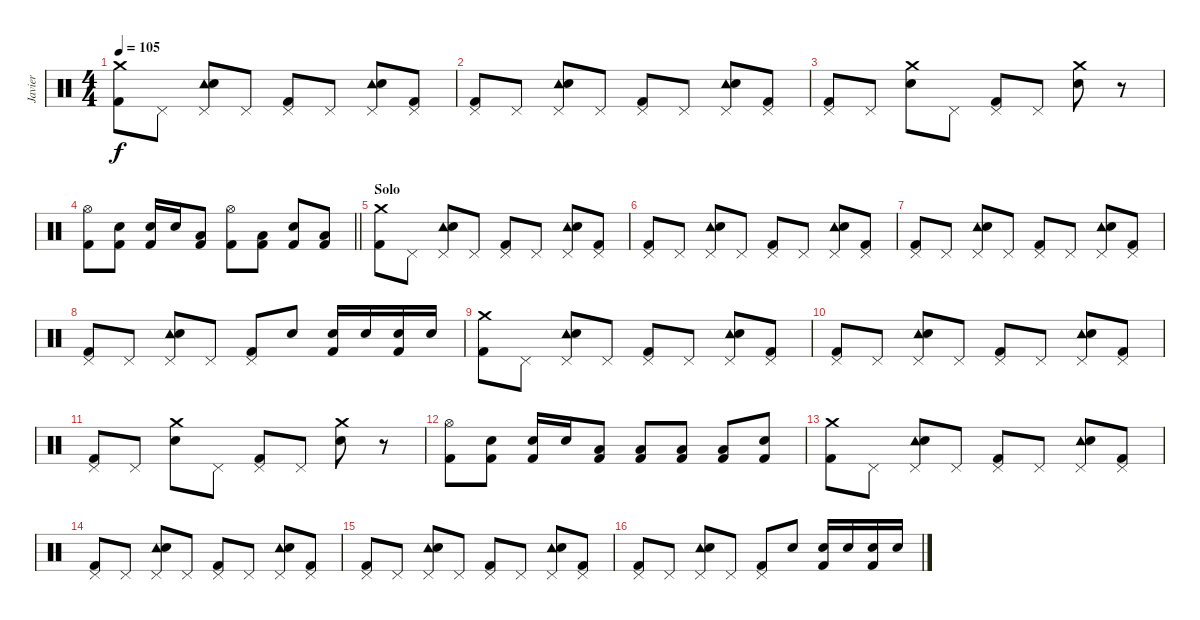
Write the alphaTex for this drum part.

\track ("Javier" "Javier") {instrument percussion}
\staff {score}
\articulation defaults
\ts (4 4)
\tempo 105
\clef neutral
\ks c
("Crash medium (hit)" "Kick (hit) 2").8{dy f} "Pedal Hi-Hat (hit)".8 ("Pedal Hi-Hat (hit)" "Tambourine (hit)" "Snare (hit) 2").8 "Pedal Hi-Hat (hit)".8 ("Pedal Hi-Hat (hit)" "Kick (hit) 2").8 "Pedal Hi-Hat (hit)".8 ("Pedal Hi-Hat (hit)" "Tambourine (hit)" "Snare (hit) 2").8 ("Pedal Hi-Hat (hit)" "Kick (hit) 2").8 |
("Pedal Hi-Hat (hit)" "Kick (hit) 2").8 "Pedal Hi-Hat (hit)".8 ("Pedal Hi-Hat (hit)" "Tambourine (hit)" "Snare (hit) 2").8 "Pedal Hi-Hat (hit)".8 ("Pedal Hi-Hat (hit)" "Kick (hit) 2").8 "Pedal Hi-Hat (hit)".8 ("Pedal Hi-Hat (hit)" "Tambourine (hit)" "Snare (hit) 2").8 ("Pedal Hi-Hat (hit)" "Kick (hit) 2").8 |
("Pedal Hi-Hat (hit)" "Kick (hit) 2").8 "Pedal Hi-Hat (hit)".8 ("Crash medium (hit)" "Snare (hit) 2").8 "Pedal Hi-Hat (hit)".8 ("Pedal Hi-Hat (hit)" "Kick (hit) 2").8 "Pedal Hi-Hat (hit)".8 ("Crash medium (hit)" "Snare (hit) 2").8 r.8 |
\barLineRight lightlight
("Hi-Hat (open)" "Kick (hit) 2").8 ("Snare (hit) 2" "Kick (hit) 2").8 ("Snare (hit) 2" "Kick (hit) 2").16 "Snare (hit) 2".16 ("Low Tom (hit)" "Kick (hit) 2").8 ("Hi-Hat (open)" "Kick (hit) 2").8 ("Low Tom (hit)" "Kick (hit) 2").8 ("Snare (hit) 2" "Kick (hit) 2").8 ("Low Tom (hit)" "Kick (hit) 2").8 |
\section ("" "Solo")
("Crash medium (hit)" "Kick (hit) 2").8 "Pedal Hi-Hat (hit)".8 ("Pedal Hi-Hat (hit)" "Tambourine (hit)" "Snare (hit) 2").8 "Pedal Hi-Hat (hit)".8 ("Pedal Hi-Hat (hit)" "Kick (hit) 2").8 "Pedal Hi-Hat (hit)".8 ("Pedal Hi-Hat (hit)" "Tambourine (hit)" "Snare (hit) 2").8 ("Pedal Hi-Hat (hit)" "Kick (hit) 2").8 |
("Pedal Hi-Hat (hit)" "Kick (hit) 2").8 "Pedal Hi-Hat (hit)".8 ("Pedal Hi-Hat (hit)" "Tambourine (hit)" "Snare (hit) 2").8 "Pedal Hi-Hat (hit)".8 ("Pedal Hi-Hat (hit)" "Kick (hit) 2").8 "Pedal Hi-Hat (hit)".8 ("Pedal Hi-Hat (hit)" "Tambourine (hit)" "Snare (hit) 2").8 ("Pedal Hi-Hat (hit)" "Kick (hit) 2").8 |
("Pedal Hi-Hat (hit)" "Kick (hit) 2").8 "Pedal Hi-Hat (hit)".8 ("Pedal Hi-Hat (hit)" "Tambourine (hit)" "Snare (hit) 2").8 "Pedal Hi-Hat (hit)".8 ("Pedal Hi-Hat (hit)" "Kick (hit) 2").8 "Pedal Hi-Hat (hit)".8 ("Pedal Hi-Hat (hit)" "Tambourine (hit)" "Snare (hit) 2").8 ("Pedal Hi-Hat (hit)" "Kick (hit) 2").8 |
("Pedal Hi-Hat (hit)" "Kick (hit) 2").8 "Pedal Hi-Hat (hit)".8 ("Pedal Hi-Hat (hit)" "Tambourine (hit)" "Snare (hit) 2").8 "Pedal Hi-Hat (hit)".8 ("Pedal Hi-Hat (hit)" "Kick (hit) 2").8 "Snare (hit) 2".8 ("Snare (hit) 2" "Kick (hit) 2").16 "Snare (hit) 2".16 ("Snare (hit) 2" "Kick (hit) 2").16 "Snare (hit) 2".16 |
("Crash medium (hit)" "Kick (hit) 2").8 "Pedal Hi-Hat (hit)".8 ("Pedal Hi-Hat (hit)" "Tambourine (hit)" "Snare (hit) 2").8 "Pedal Hi-Hat (hit)".8 ("Pedal Hi-Hat (hit)" "Kick (hit) 2").8 "Pedal Hi-Hat (hit)".8 ("Pedal Hi-Hat (hit)" "Tambourine (hit)" "Snare (hit) 2").8 ("Pedal Hi-Hat (hit)" "Kick (hit) 2").8 |
("Pedal Hi-Hat (hit)" "Kick (hit) 2").8 "Pedal Hi-Hat (hit)".8 ("Pedal Hi-Hat (hit)" "Tambourine (hit)" "Snare (hit) 2").8 "Pedal Hi-Hat (hit)".8 ("Pedal Hi-Hat (hit)" "Kick (hit) 2").8 "Pedal Hi-Hat (hit)".8 ("Pedal Hi-Hat (hit)" "Tambourine (hit)" "Snare (hit) 2").8 ("Pedal Hi-Hat (hit)" "Kick (hit) 2").8 |
("Pedal Hi-Hat (hit)" "Kick (hit) 2").8 "Pedal Hi-Hat (hit)".8 ("Crash medium (hit)" "Snare (hit) 2").8 "Pedal Hi-Hat (hit)".8 ("Pedal Hi-Hat (hit)" "Kick (hit) 2").8 "Pedal Hi-Hat (hit)".8 ("Crash medium (hit)" "Snare (hit) 2").8 r.8 |
("Hi-Hat (open)" "Kick (hit) 2").8 ("Snare (hit) 2" "Kick (hit) 2").8 ("Snare (hit) 2" "Kick (hit) 2").16 "Snare (hit) 2".16 ("Low Tom (hit)" "Kick (hit) 2").8 ("Low Tom (hit)" "Kick (hit) 2").8 ("Low Tom (hit)" "Kick (hit) 2").8 ("Low Tom (hit)" "Kick (hit) 2").8 ("Snare (hit) 2" "Kick (hit) 2").8 |
("Crash medium (hit)" "Kick (hit) 2").8 "Pedal Hi-Hat (hit)".8 ("Pedal Hi-Hat (hit)" "Tambourine (hit)" "Snare (hit) 2").8 "Pedal Hi-Hat (hit)".8 ("Pedal Hi-Hat (hit)" "Kick (hit) 2").8 "Pedal Hi-Hat (hit)".8 ("Pedal Hi-Hat (hit)" "Tambourine (hit)" "Snare (hit) 2").8 ("Pedal Hi-Hat (hit)" "Kick (hit) 2").8 |
("Pedal Hi-Hat (hit)" "Kick (hit) 2").8 "Pedal Hi-Hat (hit)".8 ("Pedal Hi-Hat (hit)" "Tambourine (hit)" "Snare (hit) 2").8 "Pedal Hi-Hat (hit)".8 ("Pedal Hi-Hat (hit)" "Kick (hit) 2").8 "Pedal Hi-Hat (hit)".8 ("Pedal Hi-Hat (hit)" "Tambourine (hit)" "Snare (hit) 2").8 ("Pedal Hi-Hat (hit)" "Kick (hit) 2").8 |
("Pedal Hi-Hat (hit)" "Kick (hit) 2").8 "Pedal Hi-Hat (hit)".8 ("Pedal Hi-Hat (hit)" "Tambourine (hit)" "Snare (hit) 2").8 "Pedal Hi-Hat (hit)".8 ("Pedal Hi-Hat (hit)" "Kick (hit) 2").8 "Pedal Hi-Hat (hit)".8 ("Pedal Hi-Hat (hit)" "Tambourine (hit)" "Snare (hit) 2").8 ("Pedal Hi-Hat (hit)" "Kick (hit) 2").8 |
("Pedal Hi-Hat (hit)" "Kick (hit) 2").8 "Pedal Hi-Hat (hit)".8 ("Pedal Hi-Hat (hit)" "Tambourine (hit)" "Snare (hit) 2").8 "Pedal Hi-Hat (hit)".8 ("Pedal Hi-Hat (hit)" "Kick (hit) 2").8 "Snare (hit) 2".8 ("Snare (hit) 2" "Kick (hit) 2").16 "Snare (hit) 2".16 ("Snare (hit) 2" "Kick (hit) 2").16 "Snare (hit) 2".16
